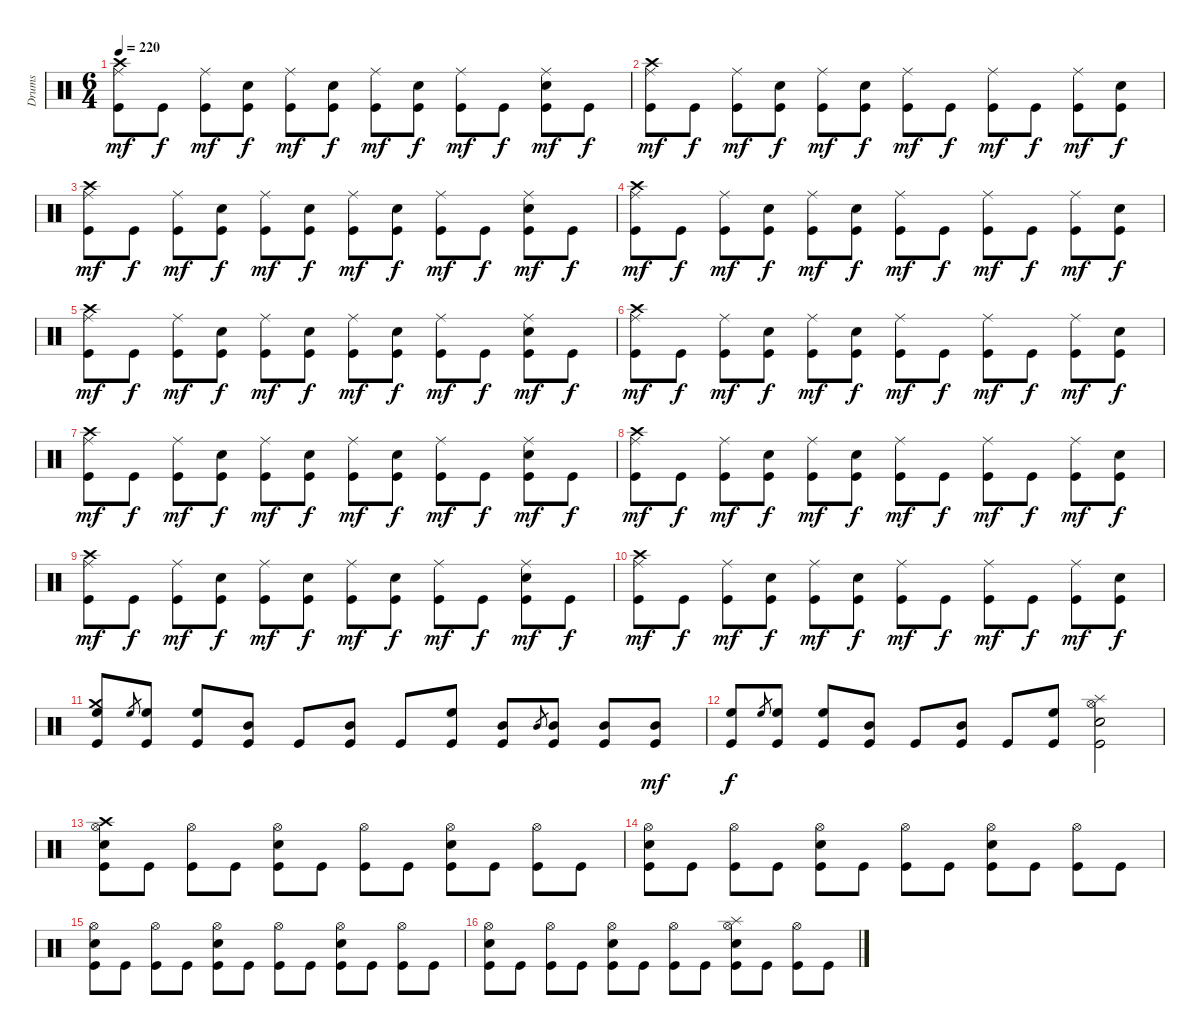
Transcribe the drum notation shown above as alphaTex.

\track ("Drums" "Drums") {instrument percussion}
\staff {score}
\articulation defaults
\ts (6 4)
\tempo 220
\clef neutral
\ks c
("Ride (middle)" "Crash high (hit)" "Kick (hit)").8{dy mf} "Kick (hit)".8{dy f} ("Ride (middle)" "Kick (hit)").8{dy mf} ("Electric Snare (hit)" "Kick (hit)").8{dy f} ("Ride (middle)" "Kick (hit)").8{dy mf} ("Electric Snare (hit)" "Kick (hit)").8{dy f} ("Ride (middle)" "Kick (hit)").8{dy mf} ("Electric Snare (hit)" "Kick (hit)").8{dy f} ("Ride (middle)" "Kick (hit)").8{dy mf} "Kick (hit)".8{dy f} ("Ride (middle)" "Electric Snare (hit)" "Kick (hit)").8{dy mf} "Kick (hit)".8{dy f} |
("Ride (middle)" "Crash high (hit)" "Kick (hit)").8{dy mf} "Kick (hit)".8{dy f} ("Ride (middle)" "Kick (hit)").8{dy mf} ("Electric Snare (hit)" "Kick (hit)").8{dy f} ("Ride (middle)" "Kick (hit)").8{dy mf} ("Electric Snare (hit)" "Kick (hit)").8{dy f} ("Ride (middle)" "Kick (hit)").8{dy mf} "Kick (hit)".8{dy f} ("Ride (middle)" "Kick (hit)").8{dy mf} "Kick (hit)".8{dy f} ("Ride (middle)" "Kick (hit)").8{dy mf} ("Electric Snare (hit)" "Kick (hit)").8{dy f} |
("Ride (middle)" "Crash high (hit)" "Kick (hit)").8{dy mf} "Kick (hit)".8{dy f} ("Ride (middle)" "Kick (hit)").8{dy mf} ("Electric Snare (hit)" "Kick (hit)").8{dy f} ("Ride (middle)" "Kick (hit)").8{dy mf} ("Electric Snare (hit)" "Kick (hit)").8{dy f} ("Ride (middle)" "Kick (hit)").8{dy mf} ("Electric Snare (hit)" "Kick (hit)").8{dy f} ("Ride (middle)" "Kick (hit)").8{dy mf} "Kick (hit)".8{dy f} ("Ride (middle)" "Electric Snare (hit)" "Kick (hit)").8{dy mf} "Kick (hit)".8{dy f} |
("Ride (middle)" "Crash high (hit)" "Kick (hit)").8{dy mf} "Kick (hit)".8{dy f} ("Ride (middle)" "Kick (hit)").8{dy mf} ("Electric Snare (hit)" "Kick (hit)").8{dy f} ("Ride (middle)" "Kick (hit)").8{dy mf} ("Electric Snare (hit)" "Kick (hit)").8{dy f} ("Ride (middle)" "Kick (hit)").8{dy mf} "Kick (hit)".8{dy f} ("Ride (middle)" "Kick (hit)").8{dy mf} "Kick (hit)".8{dy f} ("Ride (middle)" "Kick (hit)").8{dy mf} ("Electric Snare (hit)" "Kick (hit)").8{dy f} |
("Ride (middle)" "Crash high (hit)" "Kick (hit)").8{dy mf} "Kick (hit)".8{dy f} ("Ride (middle)" "Kick (hit)").8{dy mf} ("Electric Snare (hit)" "Kick (hit)").8{dy f} ("Ride (middle)" "Kick (hit)").8{dy mf} ("Electric Snare (hit)" "Kick (hit)").8{dy f} ("Ride (middle)" "Kick (hit)").8{dy mf} ("Electric Snare (hit)" "Kick (hit)").8{dy f} ("Ride (middle)" "Kick (hit)").8{dy mf} "Kick (hit)".8{dy f} ("Ride (middle)" "Electric Snare (hit)" "Kick (hit)").8{dy mf} "Kick (hit)".8{dy f} |
("Ride (middle)" "Crash high (hit)" "Kick (hit)").8{dy mf} "Kick (hit)".8{dy f} ("Ride (middle)" "Kick (hit)").8{dy mf} ("Electric Snare (hit)" "Kick (hit)").8{dy f} ("Ride (middle)" "Kick (hit)").8{dy mf} ("Electric Snare (hit)" "Kick (hit)").8{dy f} ("Ride (middle)" "Kick (hit)").8{dy mf} "Kick (hit)".8{dy f} ("Ride (middle)" "Kick (hit)").8{dy mf} "Kick (hit)".8{dy f} ("Ride (middle)" "Kick (hit)").8{dy mf} ("Electric Snare (hit)" "Kick (hit)").8{dy f} |
("Ride (middle)" "Crash high (hit)" "Kick (hit)").8{dy mf} "Kick (hit)".8{dy f} ("Ride (middle)" "Kick (hit)").8{dy mf} ("Electric Snare (hit)" "Kick (hit)").8{dy f} ("Ride (middle)" "Kick (hit)").8{dy mf} ("Electric Snare (hit)" "Kick (hit)").8{dy f} ("Ride (middle)" "Kick (hit)").8{dy mf} ("Electric Snare (hit)" "Kick (hit)").8{dy f} ("Ride (middle)" "Kick (hit)").8{dy mf} "Kick (hit)".8{dy f} ("Ride (middle)" "Electric Snare (hit)" "Kick (hit)").8{dy mf} "Kick (hit)".8{dy f} |
("Ride (middle)" "Crash high (hit)" "Kick (hit)").8{dy mf} "Kick (hit)".8{dy f} ("Ride (middle)" "Kick (hit)").8{dy mf} ("Electric Snare (hit)" "Kick (hit)").8{dy f} ("Ride (middle)" "Kick (hit)").8{dy mf} ("Electric Snare (hit)" "Kick (hit)").8{dy f} ("Ride (middle)" "Kick (hit)").8{dy mf} "Kick (hit)".8{dy f} ("Ride (middle)" "Kick (hit)").8{dy mf} "Kick (hit)".8{dy f} ("Ride (middle)" "Kick (hit)").8{dy mf} ("Electric Snare (hit)" "Kick (hit)").8{dy f} |
("Ride (middle)" "Crash high (hit)" "Kick (hit)").8{dy mf} "Kick (hit)".8{dy f} ("Ride (middle)" "Kick (hit)").8{dy mf} ("Electric Snare (hit)" "Kick (hit)").8{dy f} ("Ride (middle)" "Kick (hit)").8{dy mf} ("Electric Snare (hit)" "Kick (hit)").8{dy f} ("Ride (middle)" "Kick (hit)").8{dy mf} ("Electric Snare (hit)" "Kick (hit)").8{dy f} ("Ride (middle)" "Kick (hit)").8{dy mf} "Kick (hit)".8{dy f} ("Ride (middle)" "Electric Snare (hit)" "Kick (hit)").8{dy mf} "Kick (hit)".8{dy f} |
("Ride (middle)" "Crash high (hit)" "Kick (hit)").8{dy mf} "Kick (hit)".8{dy f} ("Ride (middle)" "Kick (hit)").8{dy mf} ("Electric Snare (hit)" "Kick (hit)").8{dy f} ("Ride (middle)" "Kick (hit)").8{dy mf} ("Electric Snare (hit)" "Kick (hit)").8{dy f} ("Ride (middle)" "Kick (hit)").8{dy mf} "Kick (hit)".8{dy f} ("Ride (middle)" "Kick (hit)").8{dy mf} "Kick (hit)".8{dy f} ("Ride (middle)" "Kick (hit)").8{dy mf} ("Electric Snare (hit)" "Kick (hit)").8{dy f} |
("Crash medium (hit)" "High Floor Tom (hit)" "Kick (hit)").8 "High Floor Tom (hit)".8{gr} ("High Floor Tom (hit)" "Kick (hit)").8 ("High Floor Tom (hit)" "Kick (hit)").8 ("Mid Tom (hit)" "Kick (hit)").8 "Kick (hit)".8 ("Mid Tom (hit)" "Kick (hit)").8 "Kick (hit)".8 ("High Floor Tom (hit)" "Kick (hit)").8 ("Mid Tom (hit)" "Kick (hit)").8 "Mid Tom (hit)".8{gr} ("Mid Tom (hit)" "Kick (hit)").8 ("Mid Tom (hit)" "Kick (hit)").8 ("Mid Tom (hit)" "Kick (hit)").8{dy mf} |
("High Floor Tom (hit)" "Kick (hit)").8{dy f} "High Floor Tom (hit)".8{gr} ("High Floor Tom (hit)" "Kick (hit)").8 ("High Floor Tom (hit)" "Kick (hit)").8 ("Mid Tom (hit)" "Kick (hit)").8 "Kick (hit)".8 ("Mid Tom (hit)" "Kick (hit)").8 "Kick (hit)".8 ("High Floor Tom (hit)" "Kick (hit)").8 ("Splash (hit)" "Hi-Hat (open)" "Electric Snare (hit)" "Kick (hit)").2 |
("Crash high (hit)" "Hi-Hat (open)" "Electric Snare (hit)" "Kick (hit)").8 "Kick (hit)".8 ("Hi-Hat (open)" "Kick (hit)").8 "Kick (hit)".8 ("Hi-Hat (open)" "Electric Snare (hit)" "Kick (hit)").8 "Kick (hit)".8 ("Hi-Hat (open)" "Kick (hit)").8 "Kick (hit)".8 ("Hi-Hat (open)" "Electric Snare (hit)" "Kick (hit)").8 "Kick (hit)".8 ("Hi-Hat (open)" "Kick (hit)").8 "Kick (hit)".8 |
("Hi-Hat (open)" "Electric Snare (hit)" "Kick (hit)").8 "Kick (hit)".8 ("Hi-Hat (open)" "Kick (hit)").8 "Kick (hit)".8 ("Hi-Hat (open)" "Electric Snare (hit)" "Kick (hit)").8 "Kick (hit)".8 ("Hi-Hat (open)" "Kick (hit)").8 "Kick (hit)".8 ("Hi-Hat (open)" "Electric Snare (hit)" "Kick (hit)").8 "Kick (hit)".8 ("Hi-Hat (open)" "Kick (hit)").8 "Kick (hit)".8 |
("Hi-Hat (open)" "Electric Snare (hit)" "Kick (hit)").8 "Kick (hit)".8 ("Hi-Hat (open)" "Kick (hit)").8 "Kick (hit)".8 ("Hi-Hat (open)" "Electric Snare (hit)" "Kick (hit)").8 "Kick (hit)".8 ("Hi-Hat (open)" "Kick (hit)").8 "Kick (hit)".8 ("Hi-Hat (open)" "Electric Snare (hit)" "Kick (hit)").8 "Kick (hit)".8 ("Hi-Hat (open)" "Kick (hit)").8 "Kick (hit)".8 |
("Hi-Hat (open)" "Electric Snare (hit)" "Kick (hit)").8 "Kick (hit)".8 ("Hi-Hat (open)" "Kick (hit)").8 "Kick (hit)".8 ("Hi-Hat (open)" "Electric Snare (hit)" "Kick (hit)").8 "Kick (hit)".8 ("Hi-Hat (open)" "Kick (hit)").8 "Kick (hit)".8 ("Splash (hit)" "Hi-Hat (open)" "Electric Snare (hit)" "Kick (hit)").8 "Kick (hit)".8 ("Hi-Hat (open)" "Kick (hit)").8 "Kick (hit)".8
